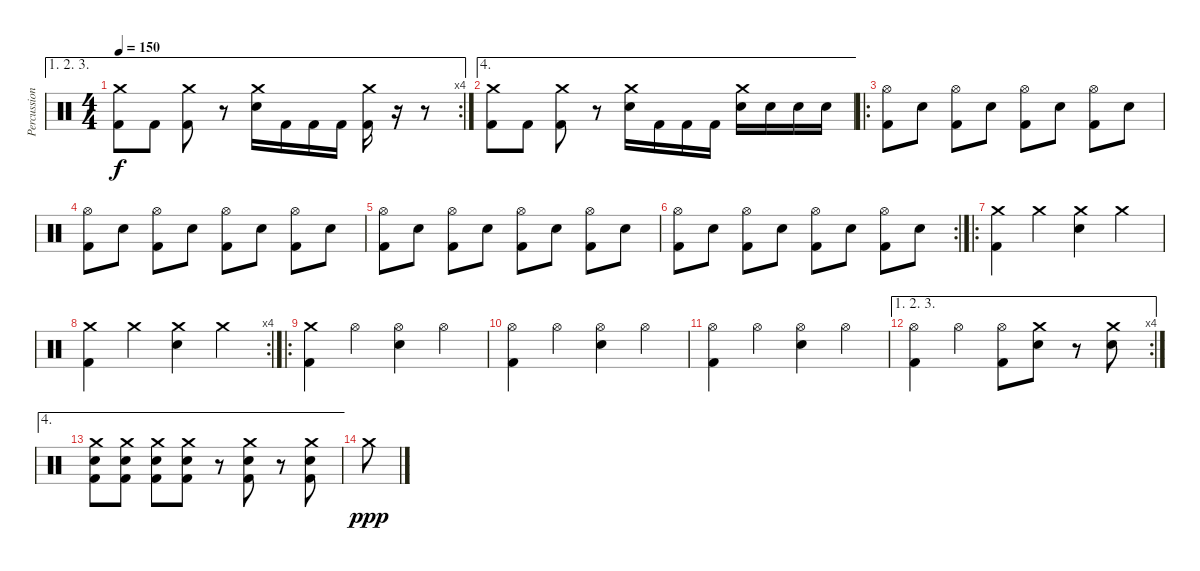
\track ("Percussion" "Percussion") {instrument percussion}
\staff {score}
\articulation defaults
\ae (1 2 3)
\rc 4
\ts (4 4)
\tempo 150
\clef neutral
\ks c
("Crash medium (hit)" "Kick (hit) 2").8{dy f} "Kick (hit) 2".8 ("Crash medium (hit)" "Kick (hit) 2").8 r.8 ("Crash medium (hit)" "Electric Snare (hit)").16 "Kick (hit) 2".16 "Kick (hit) 2".16 "Kick (hit) 2".16 ("Crash medium (hit)" "Kick (hit) 2").16 r.16 r.8 |
\ae 4
("Crash medium (hit)" "Kick (hit) 2").8 "Kick (hit) 2".8 ("Crash medium (hit)" "Kick (hit) 2").8 r.8 ("Crash medium (hit)" "Electric Snare (hit)").16 "Kick (hit) 2".16 "Kick (hit) 2".16 "Kick (hit) 2".16 ("Crash medium (hit)" "Electric Snare (hit)").16 "Electric Snare (hit)".16 "Electric Snare (hit)".16 "Electric Snare (hit)".16 |
\ro
("Hi-Hat (open)" "Kick (hit) 2").8 "Electric Snare (hit)".8 ("Hi-Hat (open)" "Kick (hit) 2").8 "Electric Snare (hit)".8 ("Hi-Hat (open)" "Kick (hit) 2").8 "Electric Snare (hit)".8 ("Hi-Hat (open)" "Kick (hit) 2").8 "Electric Snare (hit)".8 |
("Hi-Hat (open)" "Kick (hit) 2").8 "Electric Snare (hit)".8 ("Hi-Hat (open)" "Kick (hit) 2").8 "Electric Snare (hit)".8 ("Hi-Hat (open)" "Kick (hit) 2").8 "Electric Snare (hit)".8 ("Hi-Hat (open)" "Kick (hit) 2").8 "Electric Snare (hit)".8 |
("Hi-Hat (open)" "Kick (hit) 2").8 "Electric Snare (hit)".8 ("Hi-Hat (open)" "Kick (hit) 2").8 "Electric Snare (hit)".8 ("Hi-Hat (open)" "Kick (hit) 2").8 "Electric Snare (hit)".8 ("Hi-Hat (open)" "Kick (hit) 2").8 "Electric Snare (hit)".8 |
\rc 2
("Hi-Hat (open)" "Kick (hit) 2").8 "Electric Snare (hit)".8 ("Hi-Hat (open)" "Kick (hit) 2").8 "Electric Snare (hit)".8 ("Hi-Hat (open)" "Kick (hit) 2").8 "Electric Snare (hit)".8 ("Hi-Hat (open)" "Kick (hit) 2").8 "Electric Snare (hit)".8 |
\ro
("Crash medium (hit)" "Kick (hit) 2").4 "Crash medium (hit)".4 ("Crash medium (hit)" "Electric Snare (hit)").4 "Crash medium (hit)".4 |
\rc 4
("Crash medium (hit)" "Kick (hit) 2").4 "Crash medium (hit)".4 ("Crash medium (hit)" "Electric Snare (hit)").4 "Crash medium (hit)".4 |
\ro
("Crash medium (hit)" "Kick (hit) 2").4 "Hi-Hat (open)".4 ("Hi-Hat (open)" "Electric Snare (hit)").4 "Hi-Hat (open)".4 |
("Hi-Hat (open)" "Kick (hit) 2").4 "Hi-Hat (open)".4 ("Hi-Hat (open)" "Electric Snare (hit)").4 "Hi-Hat (open)".4 |
("Hi-Hat (open)" "Kick (hit) 2").4 "Hi-Hat (open)".4 ("Hi-Hat (open)" "Electric Snare (hit)").4 "Hi-Hat (open)".4 |
\ae (1 2 3)
\rc 4
("Hi-Hat (open)" "Kick (hit) 2").4 "Hi-Hat (open)".4 ("Hi-Hat (open)" "Kick (hit) 2").8 ("Crash medium (hit)" "Electric Snare (hit)").8 r.8 ("Crash medium (hit)" "Electric Snare (hit)").8 |
\ae 4
("Crash medium (hit)" "Electric Snare (hit)" "Kick (hit) 2").8 ("Crash medium (hit)" "Electric Snare (hit)" "Kick (hit) 2").8 ("Crash medium (hit)" "Electric Snare (hit)" "Kick (hit) 2").8 ("Crash medium (hit)" "Electric Snare (hit)" "Kick (hit) 2").8 r.8 ("Crash medium (hit)" "Electric Snare (hit)" "Kick (hit) 2").8 r.8 ("Crash medium (hit)" "Electric Snare (hit)" "Kick (hit) 2").8 |
"Crash medium (hit)".8{dy ppp}
